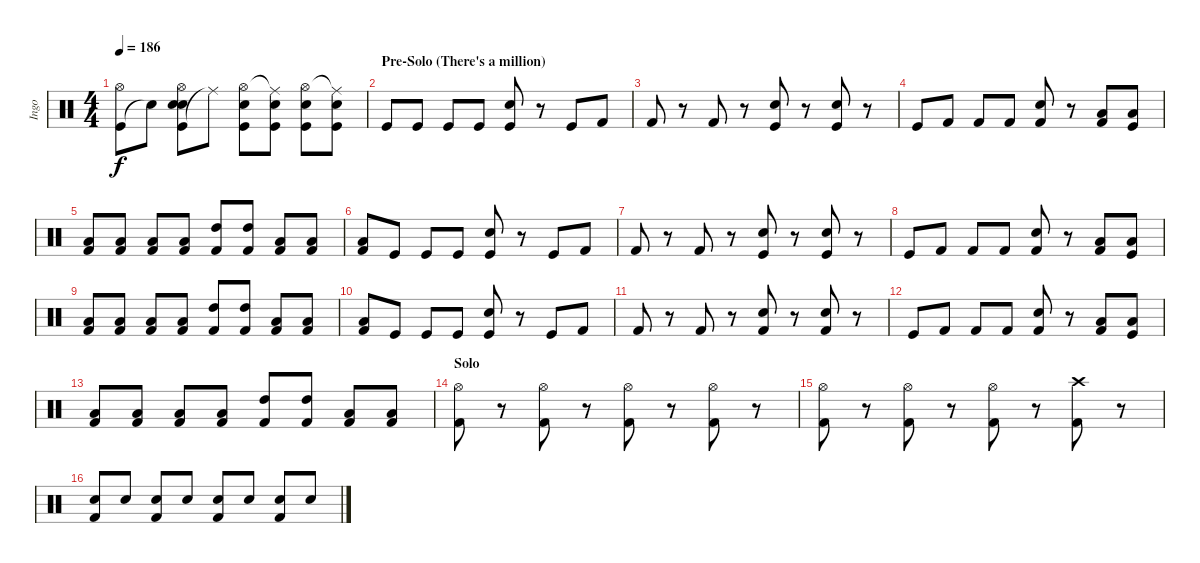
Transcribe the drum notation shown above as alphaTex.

\track ("Ingo" "Ingo") {instrument percussion}
\staff {score}
\articulation defaults
\ts (4 4)
\tempo 186
\clef neutral
\ks c
("Kick (hit)" "Hi-Hat (open)").8{dy f} "Snare (hit)"{t}.8 ("Kick (hit)" "Snare (hit) 2" "Snare (hit)"{t} "Hi-Hat (open)").8 "Ride (middle)"{t}.8 ("Kick (hit)" "Snare (hit) 2" "Hi-Hat (open)").8 ("Kick (hit)" "Snare (hit) 2" "Ride (middle)"{t}).8 ("Kick (hit)" "Snare (hit) 2" "Hi-Hat (open)").8 ("Kick (hit)" "Snare (hit) 2" "Ride (middle)"{t}).8 |
\section ("" "Pre-Solo (There's a million)")
"Kick (hit)".8 "Kick (hit)".8 "Kick (hit)".8 "Kick (hit)".8 ("Kick (hit)" "Snare (hit) 2").8 r.8 "Kick (hit)".8 "Kick (hit) 2".8 |
"Kick (hit) 2".8 r.8 "Kick (hit) 2".8 r.8 ("Kick (hit)" "Snare (hit) 2").8 r.8 ("Kick (hit)" "Snare (hit) 2").8 r.8 |
"Kick (hit)".8 "Kick (hit) 2".8 "Kick (hit) 2".8 "Kick (hit) 2".8 ("Kick (hit) 2" "Snare (hit) 2").8 r.8 ("Kick (hit) 2" "Low Floor Tom (hit)").8 ("Kick (hit)" "Low Tom (hit)").8 |
("Kick (hit) 2" "Low Tom (hit)").8 ("Kick (hit) 2" "Low Tom (hit)").8 ("Kick (hit) 2" "Low Tom (hit)").8 ("Kick (hit) 2" "Low Tom (hit)").8 ("Kick (hit) 2" "High Tom (hit)").8 ("Kick (hit) 2" "High Tom (hit)").8 ("Kick (hit) 2" "Low Tom (hit)").8 ("Kick (hit) 2" "Low Tom (hit)").8 |
("Kick (hit) 2" "Low Floor Tom (hit)").8 "Kick (hit)".8 "Kick (hit)".8 "Kick (hit)".8 ("Kick (hit)" "Snare (hit) 2").8 r.8 "Kick (hit)".8 "Kick (hit) 2".8 |
"Kick (hit) 2".8 r.8 "Kick (hit) 2".8 r.8 ("Kick (hit)" "Snare (hit) 2").8 r.8 ("Kick (hit)" "Snare (hit) 2").8 r.8 |
"Kick (hit)".8 "Kick (hit) 2".8 "Kick (hit) 2".8 "Kick (hit) 2".8 ("Kick (hit) 2" "Snare (hit) 2").8 r.8 ("Kick (hit) 2" "Low Floor Tom (hit)").8 ("Kick (hit)" "Low Tom (hit)").8 |
("Kick (hit) 2" "Low Tom (hit)").8 ("Kick (hit) 2" "Low Tom (hit)").8 ("Kick (hit) 2" "Low Tom (hit)").8 ("Kick (hit) 2" "Low Tom (hit)").8 ("Kick (hit) 2" "High Tom (hit)").8 ("Kick (hit) 2" "High Tom (hit)").8 ("Kick (hit) 2" "Low Tom (hit)").8 ("Kick (hit) 2" "Low Tom (hit)").8 |
("Kick (hit) 2" "Low Floor Tom (hit)").8 "Kick (hit)".8 "Kick (hit)".8 "Kick (hit)".8 ("Kick (hit)" "Snare (hit) 2").8 r.8 "Kick (hit)".8 "Kick (hit) 2".8 |
"Kick (hit) 2".8 r.8 "Kick (hit) 2".8 r.8 ("Kick (hit) 2" "Snare (hit) 2").8 r.8 ("Kick (hit) 2" "Snare (hit) 2").8 r.8 |
"Kick (hit)".8 "Kick (hit) 2".8 "Kick (hit) 2".8 "Kick (hit) 2".8 ("Kick (hit) 2" "Snare (hit) 2").8 r.8 ("Kick (hit) 2" "Low Floor Tom (hit)").8 ("Kick (hit)" "Low Tom (hit)").8 |
("Kick (hit) 2" "Low Tom (hit)").8 ("Kick (hit) 2" "Low Tom (hit)").8 ("Kick (hit) 2" "Low Tom (hit)").8 ("Kick (hit) 2" "Low Tom (hit)").8 ("Kick (hit) 2" "High Tom (hit)").8 ("Kick (hit) 2" "High Tom (hit)").8 ("Kick (hit) 2" "Low Tom (hit)").8 ("Kick (hit) 2" "Low Tom (hit)").8 |
\section ("" "Solo")
("Kick (hit) 2" "Hi-Hat (open)").8 r.8 ("Kick (hit) 2" "Hi-Hat (open)").8 r.8 ("Kick (hit) 2" "Hi-Hat (open)").8 r.8 ("Kick (hit) 2" "Hi-Hat (open)").8 r.8 |
("Kick (hit) 2" "Hi-Hat (open)").8 r.8 ("Kick (hit) 2" "Hi-Hat (open)").8 r.8 ("Kick (hit) 2" "Hi-Hat (open)").8 r.8 ("Kick (hit) 2" "Crash high (hit)").8 r.8 |
("Kick (hit) 2" "Snare (hit) 2").8 "Snare (hit) 2".8 ("Kick (hit) 2" "Snare (hit) 2").8 "Snare (hit) 2".8 ("Kick (hit) 2" "Snare (hit) 2").8 "Snare (hit) 2".8 ("Kick (hit) 2" "Snare (hit) 2").8 "Snare (hit) 2".8
